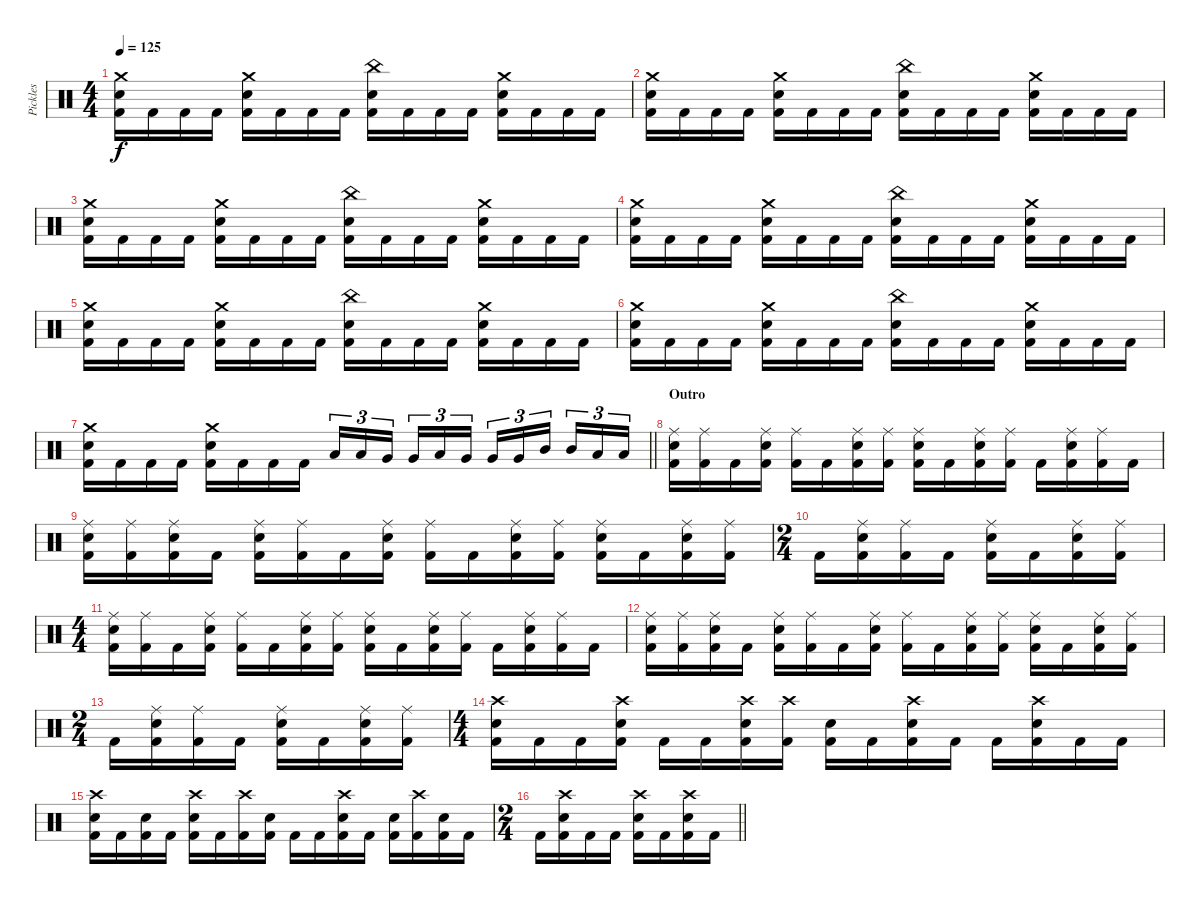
\track ("Pickles" "Pickles") {instrument percussion}
\staff {score}
\articulation defaults
\ts (4 4)
\tempo 125
\clef neutral
\ks c
("Crash medium (hit)" "Electric Snare (hit)" "Kick (hit) 2").16{dy f} "Kick (hit) 2".16 "Kick (hit) 2".16 "Kick (hit) 2".16 ("Crash medium (hit)" "Electric Snare (hit)" "Kick (hit) 2").16 "Kick (hit) 2".16 "Kick (hit) 2".16 "Kick (hit) 2".16 ("China (hit)" "Electric Snare (hit)" "Kick (hit) 2").16 "Kick (hit) 2".16 "Kick (hit) 2".16 "Kick (hit) 2".16 ("Crash medium (hit)" "Electric Snare (hit)" "Kick (hit) 2").16 "Kick (hit) 2".16 "Kick (hit) 2".16 "Kick (hit) 2".16 |
("Crash medium (hit)" "Electric Snare (hit)" "Kick (hit) 2").16 "Kick (hit) 2".16 "Kick (hit) 2".16 "Kick (hit) 2".16 ("Crash medium (hit)" "Electric Snare (hit)" "Kick (hit) 2").16 "Kick (hit) 2".16 "Kick (hit) 2".16 "Kick (hit) 2".16 ("China (hit)" "Electric Snare (hit)" "Kick (hit) 2").16 "Kick (hit) 2".16 "Kick (hit) 2".16 "Kick (hit) 2".16 ("Crash medium (hit)" "Electric Snare (hit)" "Kick (hit) 2").16 "Kick (hit) 2".16 "Kick (hit) 2".16 "Kick (hit) 2".16 |
("Crash medium (hit)" "Electric Snare (hit)" "Kick (hit) 2").16 "Kick (hit) 2".16 "Kick (hit) 2".16 "Kick (hit) 2".16 ("Crash medium (hit)" "Electric Snare (hit)" "Kick (hit) 2").16 "Kick (hit) 2".16 "Kick (hit) 2".16 "Kick (hit) 2".16 ("China (hit)" "Electric Snare (hit)" "Kick (hit) 2").16 "Kick (hit) 2".16 "Kick (hit) 2".16 "Kick (hit) 2".16 ("Crash medium (hit)" "Electric Snare (hit)" "Kick (hit) 2").16 "Kick (hit) 2".16 "Kick (hit) 2".16 "Kick (hit) 2".16 |
("Crash medium (hit)" "Electric Snare (hit)" "Kick (hit) 2").16 "Kick (hit) 2".16 "Kick (hit) 2".16 "Kick (hit) 2".16 ("Crash medium (hit)" "Electric Snare (hit)" "Kick (hit) 2").16 "Kick (hit) 2".16 "Kick (hit) 2".16 "Kick (hit) 2".16 ("China (hit)" "Electric Snare (hit)" "Kick (hit) 2").16 "Kick (hit) 2".16 "Kick (hit) 2".16 "Kick (hit) 2".16 ("Crash medium (hit)" "Electric Snare (hit)" "Kick (hit) 2").16 "Kick (hit) 2".16 "Kick (hit) 2".16 "Kick (hit) 2".16 |
("Crash medium (hit)" "Electric Snare (hit)" "Kick (hit) 2").16 "Kick (hit) 2".16 "Kick (hit) 2".16 "Kick (hit) 2".16 ("Crash medium (hit)" "Electric Snare (hit)" "Kick (hit) 2").16 "Kick (hit) 2".16 "Kick (hit) 2".16 "Kick (hit) 2".16 ("China (hit)" "Electric Snare (hit)" "Kick (hit) 2").16 "Kick (hit) 2".16 "Kick (hit) 2".16 "Kick (hit) 2".16 ("Crash medium (hit)" "Electric Snare (hit)" "Kick (hit) 2").16 "Kick (hit) 2".16 "Kick (hit) 2".16 "Kick (hit) 2".16 |
("Crash medium (hit)" "Electric Snare (hit)" "Kick (hit) 2").16 "Kick (hit) 2".16 "Kick (hit) 2".16 "Kick (hit) 2".16 ("Crash medium (hit)" "Electric Snare (hit)" "Kick (hit) 2").16 "Kick (hit) 2".16 "Kick (hit) 2".16 "Kick (hit) 2".16 ("China (hit)" "Electric Snare (hit)" "Kick (hit) 2").16 "Kick (hit) 2".16 "Kick (hit) 2".16 "Kick (hit) 2".16 ("Crash medium (hit)" "Electric Snare (hit)" "Kick (hit) 2").16 "Kick (hit) 2".16 "Kick (hit) 2".16 "Kick (hit) 2".16 |
\barLineRight lightlight
("Crash medium (hit)" "Electric Snare (hit)" "Kick (hit) 2").16 "Kick (hit) 2".16 "Kick (hit) 2".16 "Kick (hit) 2".16 ("Crash medium (hit)" "Electric Snare (hit)" "Kick (hit) 2").16 "Kick (hit) 2".16 "Kick (hit) 2".16 "Kick (hit) 2".16 "Low Tom (hit)".16{tu (3 2)} "Low Tom (hit)".16{tu (3 2)} "Very Low Tom (hit)".16{tu (3 2) beam splitsecondary} "Very Low Tom (hit)".16{tu (3 2)} "Low Floor Tom (hit)".16{tu (3 2)} "Very Low Tom (hit)".16{tu (3 2)} "Very Low Tom (hit)".16{tu (3 2)} "Very Low Tom (hit)".16{tu (3 2)} "Mid Tom (hit)".16{tu (3 2) beam splitsecondary} "Mid Tom (hit)".16{tu (3 2)} "Low Tom (hit)".16{tu (3 2)} "Low Tom (hit)".16{tu (3 2)} |
\section ("" "Outro")
("Ride (middle)" "Electric Snare (hit)" "Kick (hit) 2").16 ("Ride (middle)" "Kick (hit) 2").16 "Kick (hit) 2".16 ("Ride (middle)" "Electric Snare (hit)" "Kick (hit) 2").16 ("Ride (middle)" "Kick (hit) 2").16 "Kick (hit) 2".16 ("Ride (middle)" "Electric Snare (hit)" "Kick (hit) 2").16 ("Ride (middle)" "Kick (hit) 2").16 ("Ride (middle)" "Electric Snare (hit)" "Kick (hit) 2").16 "Kick (hit) 2".16 ("Ride (middle)" "Electric Snare (hit)" "Kick (hit) 2").16 ("Ride (middle)" "Kick (hit) 2").16 "Kick (hit) 2".16 ("Ride (middle)" "Electric Snare (hit)" "Kick (hit) 2").16 ("Ride (middle)" "Kick (hit) 2").16 "Kick (hit) 2".16 |
("Ride (middle)" "Electric Snare (hit)" "Kick (hit) 2").16 ("Ride (middle)" "Kick (hit) 2").16 ("Ride (middle)" "Electric Snare (hit)" "Kick (hit) 2").16 "Kick (hit) 2".16 ("Ride (middle)" "Electric Snare (hit)" "Kick (hit) 2").16 ("Ride (middle)" "Kick (hit) 2").16 "Kick (hit) 2".16 ("Ride (middle)" "Electric Snare (hit)" "Kick (hit) 2").16 ("Ride (middle)" "Kick (hit) 2").16 "Kick (hit) 2".16 ("Ride (middle)" "Electric Snare (hit)" "Kick (hit) 2").16 ("Ride (middle)" "Kick (hit) 2").16 ("Ride (middle)" "Electric Snare (hit)" "Kick (hit) 2").16 "Kick (hit) 2".16 ("Ride (middle)" "Electric Snare (hit)" "Kick (hit) 2").16 ("Ride (middle)" "Kick (hit) 2").16 |
\ts (2 4)
"Kick (hit) 2".16 ("Ride (middle)" "Electric Snare (hit)" "Kick (hit) 2").16 ("Ride (middle)" "Kick (hit) 2").16 "Kick (hit) 2".16 ("Ride (middle)" "Electric Snare (hit)" "Kick (hit) 2").16 "Kick (hit) 2".16 ("Ride (middle)" "Electric Snare (hit)" "Kick (hit) 2").16 ("Ride (middle)" "Kick (hit) 2").16 |
\ts (4 4)
("Ride (middle)" "Electric Snare (hit)" "Kick (hit) 2").16 ("Ride (middle)" "Kick (hit) 2").16 "Kick (hit) 2".16 ("Ride (middle)" "Electric Snare (hit)" "Kick (hit) 2").16 ("Ride (middle)" "Kick (hit) 2").16 "Kick (hit) 2".16 ("Ride (middle)" "Electric Snare (hit)" "Kick (hit) 2").16 ("Ride (middle)" "Kick (hit) 2").16 ("Ride (middle)" "Electric Snare (hit)" "Kick (hit) 2").16 "Kick (hit) 2".16 ("Ride (middle)" "Electric Snare (hit)" "Kick (hit) 2").16 ("Ride (middle)" "Kick (hit) 2").16 "Kick (hit) 2".16 ("Ride (middle)" "Electric Snare (hit)" "Kick (hit) 2").16 ("Ride (middle)" "Kick (hit) 2").16 "Kick (hit) 2".16 |
("Ride (middle)" "Electric Snare (hit)" "Kick (hit) 2").16 ("Ride (middle)" "Kick (hit) 2").16 ("Ride (middle)" "Electric Snare (hit)" "Kick (hit) 2").16 "Kick (hit) 2".16 ("Ride (middle)" "Electric Snare (hit)" "Kick (hit) 2").16 ("Ride (middle)" "Kick (hit) 2").16 "Kick (hit) 2".16 ("Ride (middle)" "Electric Snare (hit)" "Kick (hit) 2").16 ("Ride (middle)" "Kick (hit) 2").16 "Kick (hit) 2".16 ("Ride (middle)" "Electric Snare (hit)" "Kick (hit) 2").16 ("Ride (middle)" "Kick (hit) 2").16 ("Ride (middle)" "Electric Snare (hit)" "Kick (hit) 2").16 "Kick (hit) 2".16 ("Ride (middle)" "Electric Snare (hit)" "Kick (hit) 2").16 ("Ride (middle)" "Kick (hit) 2").16 |
\ts (2 4)
"Kick (hit) 2".16 ("Ride (middle)" "Electric Snare (hit)" "Kick (hit) 2").16 ("Ride (middle)" "Kick (hit) 2").16 "Kick (hit) 2".16 ("Ride (middle)" "Electric Snare (hit)" "Kick (hit) 2").16 "Kick (hit) 2".16 ("Ride (middle)" "Electric Snare (hit)" "Kick (hit) 2").16 ("Ride (middle)" "Kick (hit) 2").16 |
\ts (4 4)
("Crash high (hit)" "Electric Snare (hit)" "Kick (hit) 2").16 "Kick (hit) 2".16 "Kick (hit) 2".16 ("Crash high (hit)" "Electric Snare (hit)" "Kick (hit) 2").16 "Kick (hit) 2".16 "Kick (hit) 2".16 ("Crash high (hit)" "Electric Snare (hit)" "Kick (hit) 2").16 ("Crash high (hit)" "Kick (hit) 2").16 ("Electric Snare (hit)" "Kick (hit) 2").16 "Kick (hit) 2".16 ("Crash high (hit)" "Electric Snare (hit)" "Kick (hit) 2").16 "Kick (hit) 2".16 "Kick (hit) 2".16 ("Crash high (hit)" "Electric Snare (hit)" "Kick (hit) 2").16 "Kick (hit) 2".16 "Kick (hit) 2".16 |
("Crash high (hit)" "Electric Snare (hit)" "Kick (hit) 2").16 "Kick (hit) 2".16 ("Electric Snare (hit)" "Kick (hit) 2").16 "Kick (hit) 2".16 ("Crash high (hit)" "Electric Snare (hit)" "Kick (hit) 2").16 "Kick (hit) 2".16 ("Crash high (hit)" "Kick (hit) 2").16 ("Electric Snare (hit)" "Kick (hit) 2").16 "Kick (hit) 2".16 "Kick (hit) 2".16 ("Crash high (hit)" "Electric Snare (hit)" "Kick (hit) 2").16 "Kick (hit) 2".16 ("Electric Snare (hit)" "Kick (hit) 2").16 ("Crash high (hit)" "Kick (hit) 2").16 ("Electric Snare (hit)" "Kick (hit) 2").16 "Kick (hit) 2".16 |
\ts (2 4)
\barLineRight lightlight "Kick (hit) 2".16
("Crash high (hit)" "Electric Snare (hit)" "Kick (hit) 2").16 "Kick (hit) 2".16 "Kick (hit) 2".16 ("Crash high (hit)" "Electric Snare (hit)" "Kick (hit) 2").16 "Kick (hit) 2".16 ("Crash high (hit)" "Electric Snare (hit)" "Kick (hit) 2").16 "Kick (hit) 2".16
